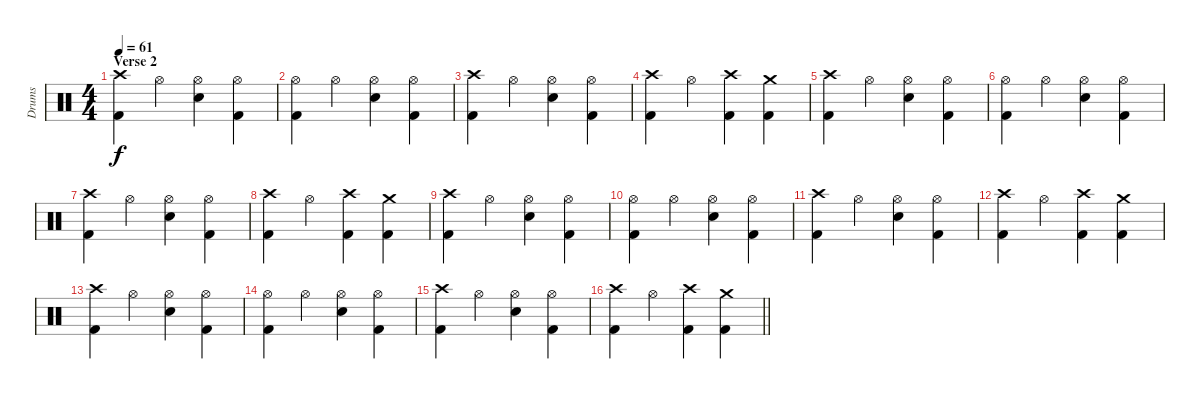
\track ("Drums" "Drums") {instrument percussion}
\staff {score}
\articulation defaults
\ts (4 4)
\section ("" "Verse 2")
\tempo 61
\clef neutral
\ks c
("Crash high (hit)" "Kick (hit) 2").4{dy f} "Hi-Hat (open)".4 ("Hi-Hat (open)" "Electric Snare (hit)").4 ("Hi-Hat (open)" "Kick (hit) 2").4 |
("Hi-Hat (open)" "Kick (hit) 2").4 "Hi-Hat (open)".4 ("Hi-Hat (open)" "Electric Snare (hit)").4 ("Hi-Hat (open)" "Kick (hit) 2").4 |
("Crash high (hit)" "Kick (hit) 2").4 "Hi-Hat (open)".4 ("Hi-Hat (open)" "Electric Snare (hit)").4 ("Hi-Hat (open)" "Kick (hit) 2").4 |
("Crash high (hit)" "Kick (hit) 2").4 "Hi-Hat (open)".4 ("Crash high (hit)" "Kick (hit) 2").4 ("Crash medium (hit)" "Kick (hit) 2").4 |
("Crash high (hit)" "Kick (hit) 2").4 "Hi-Hat (open)".4 ("Hi-Hat (open)" "Electric Snare (hit)").4 ("Hi-Hat (open)" "Kick (hit) 2").4 |
("Hi-Hat (open)" "Kick (hit) 2").4 "Hi-Hat (open)".4 ("Hi-Hat (open)" "Electric Snare (hit)").4 ("Hi-Hat (open)" "Kick (hit) 2").4 |
("Crash high (hit)" "Kick (hit) 2").4 "Hi-Hat (open)".4 ("Hi-Hat (open)" "Electric Snare (hit)").4 ("Hi-Hat (open)" "Kick (hit) 2").4 |
("Crash high (hit)" "Kick (hit) 2").4 "Hi-Hat (open)".4 ("Crash high (hit)" "Kick (hit) 2").4 ("Crash medium (hit)" "Kick (hit) 2").4 |
("Crash high (hit)" "Kick (hit) 2").4 "Hi-Hat (open)".4 ("Hi-Hat (open)" "Electric Snare (hit)").4 ("Hi-Hat (open)" "Kick (hit) 2").4 |
("Hi-Hat (open)" "Kick (hit) 2").4 "Hi-Hat (open)".4 ("Hi-Hat (open)" "Electric Snare (hit)").4 ("Hi-Hat (open)" "Kick (hit) 2").4 |
("Crash high (hit)" "Kick (hit) 2").4 "Hi-Hat (open)".4 ("Hi-Hat (open)" "Electric Snare (hit)").4 ("Hi-Hat (open)" "Kick (hit) 2").4 |
("Crash high (hit)" "Kick (hit) 2").4 "Hi-Hat (open)".4 ("Crash high (hit)" "Kick (hit) 2").4 ("Crash medium (hit)" "Kick (hit) 2").4 |
("Crash high (hit)" "Kick (hit) 2").4 "Hi-Hat (open)".4 ("Hi-Hat (open)" "Electric Snare (hit)").4 ("Hi-Hat (open)" "Kick (hit) 2").4 |
("Hi-Hat (open)" "Kick (hit) 2").4 "Hi-Hat (open)".4 ("Hi-Hat (open)" "Electric Snare (hit)").4 ("Hi-Hat (open)" "Kick (hit) 2").4 |
("Crash high (hit)" "Kick (hit) 2").4 "Hi-Hat (open)".4 ("Hi-Hat (open)" "Electric Snare (hit)").4 ("Hi-Hat (open)" "Kick (hit) 2").4 |
\barLineRight lightlight
("Crash high (hit)" "Kick (hit) 2").4 "Hi-Hat (open)".4 ("Crash high (hit)" "Kick (hit) 2").4 ("Crash medium (hit)" "Kick (hit) 2").4
